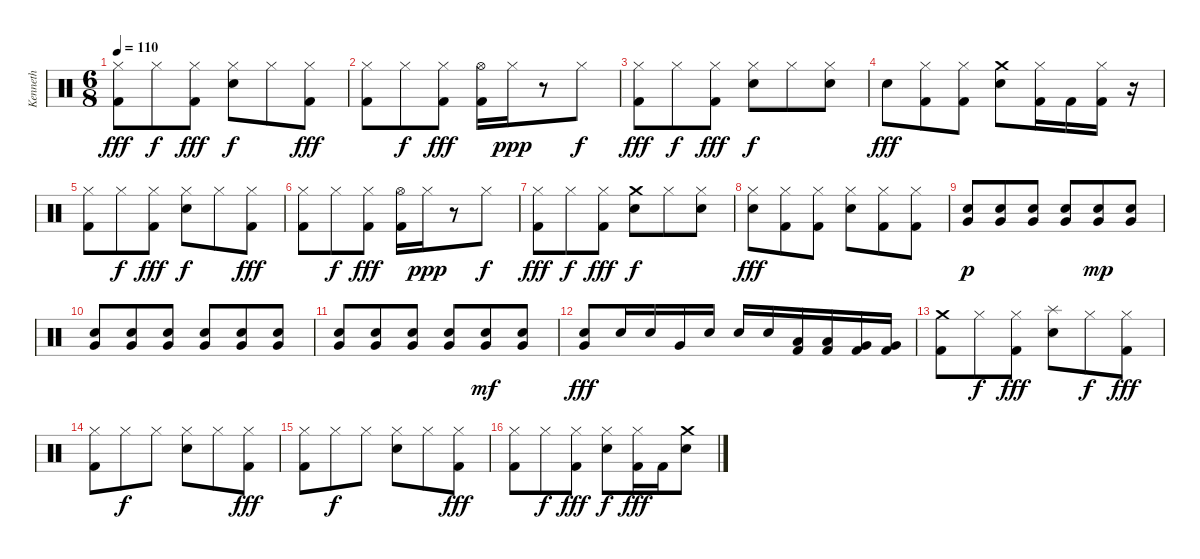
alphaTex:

\track ("Kenneth " "Kenneth ") {instrument percussion}
\staff {score}
\articulation defaults
\ts (6 8)
\tempo 110
\clef neutral
\ks c
("Hi-Hat (closed)" "Kick (hit) 2").8{dy fff} "Hi-Hat (closed)".8{dy f} ("Hi-Hat (closed)" "Kick (hit) 2").8{dy fff} ("Hi-Hat (closed)" "Electric Snare (hit)").8{dy f} "Hi-Hat (closed)".8 ("Hi-Hat (closed)" "Kick (hit) 2").8{dy fff} |
("Hi-Hat (closed)" "Kick (hit) 2").8 "Hi-Hat (closed)".8{dy f} ("Hi-Hat (closed)" "Kick (hit) 2").8{dy fff} ("Hi-Hat (open)" "Kick (hit) 2").16 "Hi-Hat (closed)".16{dy ppp} r.8 "Hi-Hat (closed)".8{dy f} |
("Hi-Hat (closed)" "Kick (hit) 2").8{dy fff} "Hi-Hat (closed)".8{dy f} ("Hi-Hat (closed)" "Kick (hit) 2").8{dy fff} ("Hi-Hat (closed)" "Electric Snare (hit)").8{dy f} "Hi-Hat (closed)".8 ("Hi-Hat (closed)" "Electric Snare (hit)").8 |
"Electric Snare (hit)".8{dy fff} ("Hi-Hat (closed)" "Kick (hit) 2").8 ("Hi-Hat (closed)" "Kick (hit) 2").8 ("Crash medium (hit)" "Electric Snare (hit)").8 ("Hi-Hat (closed)" "Kick (hit) 2").16 "Kick (hit) 2".16 ("Hi-Hat (closed)" "Kick (hit) 2").16 r.16 |
("Hi-Hat (closed)" "Kick (hit) 2").8 "Hi-Hat (closed)".8{dy f} ("Hi-Hat (closed)" "Kick (hit) 2").8{dy fff} ("Hi-Hat (closed)" "Electric Snare (hit)").8{dy f} "Hi-Hat (closed)".8 ("Hi-Hat (closed)" "Kick (hit) 2").8{dy fff} |
("Hi-Hat (closed)" "Kick (hit) 2").8 "Hi-Hat (closed)".8{dy f} ("Hi-Hat (closed)" "Kick (hit) 2").8{dy fff} ("Hi-Hat (open)" "Kick (hit) 2").16 "Hi-Hat (closed)".16{dy ppp} r.8 "Hi-Hat (closed)".8{dy f} |
("Hi-Hat (closed)" "Kick (hit) 2").8{dy fff} "Hi-Hat (closed)".8{dy f} ("Hi-Hat (closed)" "Kick (hit) 2").8{dy fff} ("Crash medium (hit)" "Electric Snare (hit)").8{dy f} "Hi-Hat (closed)".8 ("Hi-Hat (closed)" "Electric Snare (hit)").8 |
("Hi-Hat (closed)" "Electric Snare (hit)").8{dy fff} ("Hi-Hat (closed)" "Kick (hit) 2").8 ("Hi-Hat (closed)" "Kick (hit) 2").8 ("Hi-Hat (closed)" "Electric Snare (hit)").8 ("Hi-Hat (closed)" "Kick (hit) 2").8 ("Hi-Hat (closed)" "Kick (hit) 2").8 |
("Very Low Tom (hit)" "Electric Snare (hit)").8{dy p} ("Very Low Tom (hit)" "Electric Snare (hit)").8 ("Very Low Tom (hit)" "Electric Snare (hit)").8 ("Very Low Tom (hit)" "Electric Snare (hit)").8 ("Very Low Tom (hit)" "Electric Snare (hit)").8{dy mp} ("Very Low Tom (hit)" "Electric Snare (hit)").8 |
("Very Low Tom (hit)" "Electric Snare (hit)").8 ("Very Low Tom (hit)" "Electric Snare (hit)").8 ("Very Low Tom (hit)" "Electric Snare (hit)").8 ("Very Low Tom (hit)" "Electric Snare (hit)").8 ("Very Low Tom (hit)" "Electric Snare (hit)").8 ("Very Low Tom (hit)" "Electric Snare (hit)").8 |
("Very Low Tom (hit)" "Electric Snare (hit)").8 ("Very Low Tom (hit)" "Electric Snare (hit)").8 ("Very Low Tom (hit)" "Electric Snare (hit)").8 ("Very Low Tom (hit)" "Electric Snare (hit)").8 ("Very Low Tom (hit)" "Electric Snare (hit)").8{dy mf} ("Very Low Tom (hit)" "Electric Snare (hit)").8 |
("Very Low Tom (hit)" "Electric Snare (hit)").8{dy fff} "Electric Snare (hit)".16 "Electric Snare (hit)".16 "Very Low Tom (hit)".16 "Electric Snare (hit)".16 "Electric Snare (hit)".16 "Electric Snare (hit)".16 ("Kick (hit) 2" "Low Tom (hit)").16 ("Kick (hit) 2" "Low Tom (hit)").16 ("Kick (hit) 2" "Very Low Tom (hit)").16 ("Kick (hit) 2" "Very Low Tom (hit)").16 |
("Crash medium (hit)" "Kick (hit) 2").8 "Hi-Hat (closed)".8{dy f} ("Hi-Hat (closed)" "Kick (hit) 2").8{dy fff} ("Splash (hit)" "Electric Snare (hit)").8 "Hi-Hat (closed)".8{dy f} ("Hi-Hat (closed)" "Kick (hit) 2").8{dy fff} |
("Hi-Hat (closed)" "Kick (hit) 2").8 "Hi-Hat (closed)".8{dy f} "Hi-Hat (closed)".8 ("Hi-Hat (closed)" "Electric Snare (hit)").8 "Hi-Hat (closed)".8 ("Hi-Hat (closed)" "Kick (hit) 2").8{dy fff} |
("Hi-Hat (closed)" "Kick (hit) 2").8 "Hi-Hat (closed)".8{dy f} "Hi-Hat (closed)".8 ("Hi-Hat (closed)" "Electric Snare (hit)").8 "Hi-Hat (closed)".8 ("Hi-Hat (closed)" "Kick (hit) 2").8{dy fff} |
("Hi-Hat (closed)" "Kick (hit) 2").8 "Hi-Hat (closed)".8{dy f} ("Hi-Hat (closed)" "Kick (hit) 2").8{dy fff} ("Hi-Hat (closed)" "Electric Snare (hit)").8{dy f} ("Hi-Hat (closed)" "Kick (hit) 2").16{dy fff} "Kick (hit) 2".16 ("Crash medium (hit)" "Electric Snare (hit)").8
